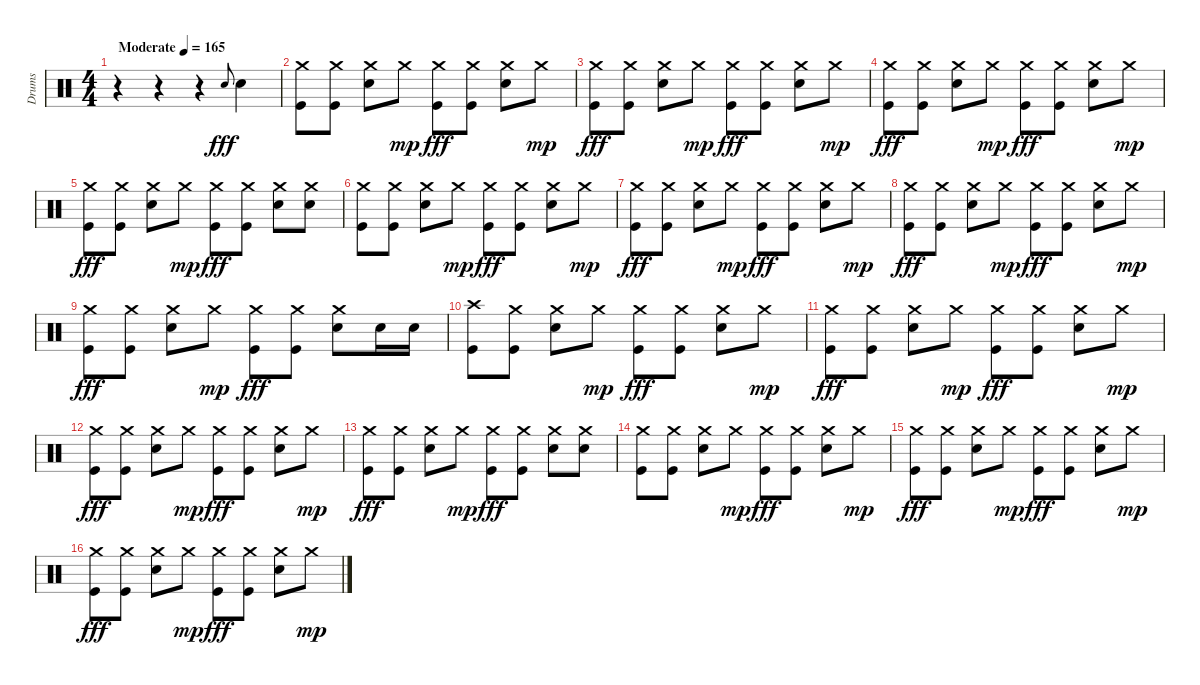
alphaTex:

\track ("Drums" "Drums") {instrument percussion}
\staff {score}
\articulation defaults
\ts (4 4)
\tempo (165 "Moderate")
\clef neutral
\ks c
r.4{dy fff} r.4 r.4 "Snare (hit) 2".8{gr onbeat} "Snare (hit) 2".4 |
("Crash medium (hit)" "Kick (hit)").8 ("Crash medium (hit)" "Kick (hit)").8 ("Crash medium (hit)" "Snare (hit) 2").8 "Crash medium (hit)".8{dy mp} ("Crash medium (hit)" "Kick (hit)").8{dy fff} ("Crash medium (hit)" "Kick (hit)").8 ("Crash medium (hit)" "Snare (hit) 2").8 "Crash medium (hit)".8{dy mp} |
("Crash medium (hit)" "Kick (hit)").8{dy fff} ("Crash medium (hit)" "Kick (hit)").8 ("Crash medium (hit)" "Snare (hit) 2").8 "Crash medium (hit)".8{dy mp} ("Crash medium (hit)" "Kick (hit)").8{dy fff} ("Crash medium (hit)" "Kick (hit)").8 ("Crash medium (hit)" "Snare (hit) 2").8 "Crash medium (hit)".8{dy mp} |
("Crash medium (hit)" "Kick (hit)").8{dy fff} ("Crash medium (hit)" "Kick (hit)").8 ("Crash medium (hit)" "Snare (hit) 2").8 "Crash medium (hit)".8{dy mp} ("Crash medium (hit)" "Kick (hit)").8{dy fff} ("Crash medium (hit)" "Kick (hit)").8 ("Crash medium (hit)" "Snare (hit) 2").8 "Crash medium (hit)".8{dy mp} |
("Crash medium (hit)" "Kick (hit)").8{dy fff} ("Crash medium (hit)" "Kick (hit)").8 ("Crash medium (hit)" "Snare (hit) 2").8 "Crash medium (hit)".8{dy mp} ("Crash medium (hit)" "Kick (hit)").8{dy fff} ("Crash medium (hit)" "Kick (hit)").8 ("Crash medium (hit)" "Snare (hit) 2").8 ("Crash medium (hit)" "Snare (hit) 2").8 |
("Crash medium (hit)" "Kick (hit)").8 ("Crash medium (hit)" "Kick (hit)").8 ("Crash medium (hit)" "Snare (hit) 2").8 "Crash medium (hit)".8{dy mp} ("Crash medium (hit)" "Kick (hit)").8{dy fff} ("Crash medium (hit)" "Kick (hit)").8 ("Crash medium (hit)" "Snare (hit) 2").8 "Crash medium (hit)".8{dy mp} |
("Crash medium (hit)" "Kick (hit)").8{dy fff} ("Crash medium (hit)" "Kick (hit)").8 ("Crash medium (hit)" "Snare (hit) 2").8 "Crash medium (hit)".8{dy mp} ("Crash medium (hit)" "Kick (hit)").8{dy fff} ("Crash medium (hit)" "Kick (hit)").8 ("Crash medium (hit)" "Snare (hit) 2").8 "Crash medium (hit)".8{dy mp} |
("Crash medium (hit)" "Kick (hit)").8{dy fff} ("Crash medium (hit)" "Kick (hit)").8 ("Crash medium (hit)" "Snare (hit) 2").8 "Crash medium (hit)".8{dy mp} ("Crash medium (hit)" "Kick (hit)").8{dy fff} ("Crash medium (hit)" "Kick (hit)").8 ("Crash medium (hit)" "Snare (hit) 2").8 "Crash medium (hit)".8{dy mp} |
("Crash medium (hit)" "Kick (hit)").8{dy fff} ("Crash medium (hit)" "Kick (hit)").8 ("Crash medium (hit)" "Snare (hit) 2").8 "Crash medium (hit)".8{dy mp} ("Crash medium (hit)" "Kick (hit)").8{dy fff} ("Crash medium (hit)" "Kick (hit)").8 ("Crash medium (hit)" "Snare (hit) 2").8 "Snare (hit) 2".16 "Snare (hit) 2".16 |
("Crash high (hit)" "Kick (hit)").8 ("Crash medium (hit)" "Kick (hit)").8 ("Crash medium (hit)" "Snare (hit) 2").8 "Crash medium (hit)".8{dy mp} ("Crash medium (hit)" "Kick (hit)").8{dy fff} ("Crash medium (hit)" "Kick (hit)").8 ("Crash medium (hit)" "Snare (hit) 2").8 "Crash medium (hit)".8{dy mp} |
("Crash medium (hit)" "Kick (hit)").8{dy fff} ("Crash medium (hit)" "Kick (hit)").8 ("Crash medium (hit)" "Snare (hit) 2").8 "Crash medium (hit)".8{dy mp} ("Crash medium (hit)" "Kick (hit)").8{dy fff} ("Crash medium (hit)" "Kick (hit)").8 ("Crash medium (hit)" "Snare (hit) 2").8 "Crash medium (hit)".8{dy mp} |
("Crash medium (hit)" "Kick (hit)").8{dy fff} ("Crash medium (hit)" "Kick (hit)").8 ("Crash medium (hit)" "Snare (hit) 2").8 "Crash medium (hit)".8{dy mp} ("Crash medium (hit)" "Kick (hit)").8{dy fff} ("Crash medium (hit)" "Kick (hit)").8 ("Crash medium (hit)" "Snare (hit) 2").8 "Crash medium (hit)".8{dy mp} |
("Crash medium (hit)" "Kick (hit)").8{dy fff} ("Crash medium (hit)" "Kick (hit)").8 ("Crash medium (hit)" "Snare (hit) 2").8 "Crash medium (hit)".8{dy mp} ("Crash medium (hit)" "Kick (hit)").8{dy fff} ("Crash medium (hit)" "Kick (hit)").8 ("Crash medium (hit)" "Snare (hit) 2").8 ("Crash medium (hit)" "Snare (hit) 2").8 |
("Crash medium (hit)" "Kick (hit)").8 ("Crash medium (hit)" "Kick (hit)").8 ("Crash medium (hit)" "Snare (hit) 2").8 "Crash medium (hit)".8{dy mp} ("Crash medium (hit)" "Kick (hit)").8{dy fff} ("Crash medium (hit)" "Kick (hit)").8 ("Crash medium (hit)" "Snare (hit) 2").8 "Crash medium (hit)".8{dy mp} |
("Crash medium (hit)" "Kick (hit)").8{dy fff} ("Crash medium (hit)" "Kick (hit)").8 ("Crash medium (hit)" "Snare (hit) 2").8 "Crash medium (hit)".8{dy mp} ("Crash medium (hit)" "Kick (hit)").8{dy fff} ("Crash medium (hit)" "Kick (hit)").8 ("Crash medium (hit)" "Snare (hit) 2").8 "Crash medium (hit)".8{dy mp} |
("Crash medium (hit)" "Kick (hit)").8{dy fff} ("Crash medium (hit)" "Kick (hit)").8 ("Crash medium (hit)" "Snare (hit) 2").8 "Crash medium (hit)".8{dy mp} ("Crash medium (hit)" "Kick (hit)").8{dy fff} ("Crash medium (hit)" "Kick (hit)").8 ("Crash medium (hit)" "Snare (hit) 2").8 "Crash medium (hit)".8{dy mp}
